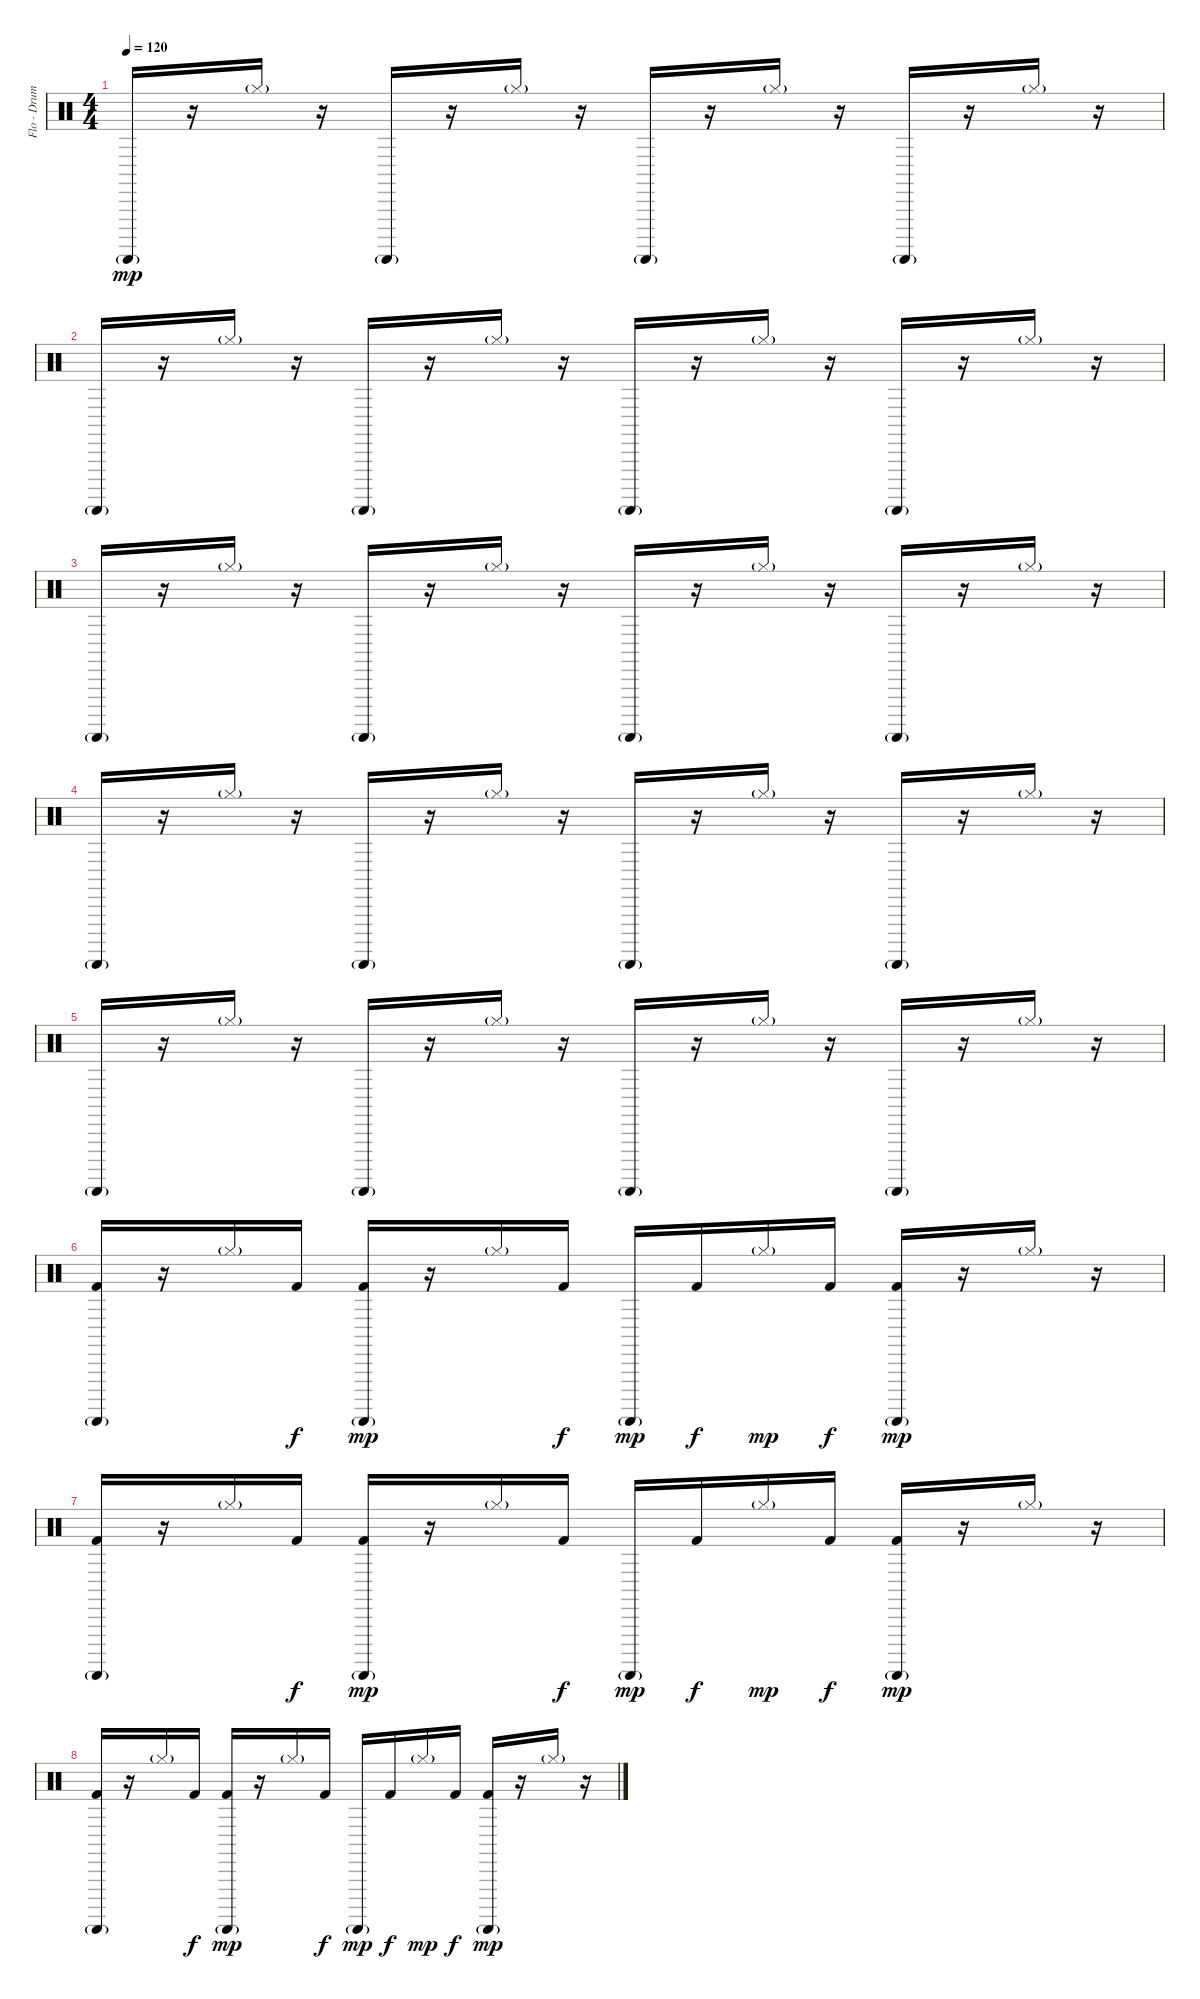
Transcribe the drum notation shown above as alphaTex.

\track ("Flo - Drums" "Flo - Drum") {instrument percussion}
\staff {score}
\articulation defaults
\ts (4 4)
\tempo 120
\clef neutral
\ks c "Guiro (scrap-return)"{g}.16{dy mp}
r.16 "Hi-Hat (closed)"{g}.16 r.16 "Guiro (scrap-return)"{g}.16 r.16 "Hi-Hat (closed)"{g}.16 r.16 "Guiro (scrap-return)"{g}.16 r.16 "Hi-Hat (closed)"{g}.16 r.16 "Guiro (scrap-return)"{g}.16 r.16 "Hi-Hat (closed)"{g}.16 r.16 |
"Guiro (scrap-return)"{g}.16 r.16 "Hi-Hat (closed)"{g}.16 r.16 "Guiro (scrap-return)"{g}.16 r.16 "Hi-Hat (closed)"{g}.16 r.16 "Guiro (scrap-return)"{g}.16 r.16 "Hi-Hat (closed)"{g}.16 r.16 "Guiro (scrap-return)"{g}.16 r.16 "Hi-Hat (closed)"{g}.16 r.16 |
"Guiro (scrap-return)"{g}.16 r.16 "Hi-Hat (closed)"{g}.16 r.16 "Guiro (scrap-return)"{g}.16 r.16 "Hi-Hat (closed)"{g}.16 r.16 "Guiro (scrap-return)"{g}.16 r.16 "Hi-Hat (closed)"{g}.16 r.16 "Guiro (scrap-return)"{g}.16 r.16 "Hi-Hat (closed)"{g}.16 r.16 |
"Guiro (scrap-return)"{g}.16 r.16 "Hi-Hat (closed)"{g}.16 r.16 "Guiro (scrap-return)"{g}.16 r.16 "Hi-Hat (closed)"{g}.16 r.16 "Guiro (scrap-return)"{g}.16 r.16 "Hi-Hat (closed)"{g}.16 r.16 "Guiro (scrap-return)"{g}.16 r.16 "Hi-Hat (closed)"{g}.16 r.16 |
"Guiro (scrap-return)"{g}.16 r.16 "Hi-Hat (closed)"{g}.16 r.16 "Guiro (scrap-return)"{g}.16 r.16 "Hi-Hat (closed)"{g}.16 r.16 "Guiro (scrap-return)"{g}.16 r.16 "Hi-Hat (closed)"{g}.16 r.16 "Guiro (scrap-return)"{g}.16 r.16 "Hi-Hat (closed)"{g}.16 r.16 |
("Guiro (scrap-return)"{g} "Kick (hit) 2").16 r.16 "Hi-Hat (closed)"{g}.16 "Kick (hit) 2".16{dy f} ("Guiro (scrap-return)"{g} "Kick (hit) 2").16{dy mp} r.16 "Hi-Hat (closed)"{g}.16 "Kick (hit) 2".16{dy f} "Guiro (scrap-return)"{g}.16{dy mp} "Kick (hit) 2".16{dy f} "Hi-Hat (closed)"{g}.16{dy mp} "Kick (hit) 2".16{dy f} ("Guiro (scrap-return)"{g} "Kick (hit) 2").16{dy mp} r.16 "Hi-Hat (closed)"{g}.16 r.16 |
("Guiro (scrap-return)"{g} "Kick (hit) 2").16 r.16 "Hi-Hat (closed)"{g}.16 "Kick (hit) 2".16{dy f} ("Guiro (scrap-return)"{g} "Kick (hit) 2").16{dy mp} r.16 "Hi-Hat (closed)"{g}.16 "Kick (hit) 2".16{dy f} "Guiro (scrap-return)"{g}.16{dy mp} "Kick (hit) 2".16{dy f} "Hi-Hat (closed)"{g}.16{dy mp} "Kick (hit) 2".16{dy f} ("Guiro (scrap-return)"{g} "Kick (hit) 2").16{dy mp} r.16 "Hi-Hat (closed)"{g}.16 r.16 |
("Guiro (scrap-return)"{g} "Kick (hit) 2").16 r.16 "Hi-Hat (closed)"{g}.16 "Kick (hit) 2".16{dy f} ("Guiro (scrap-return)"{g} "Kick (hit) 2").16{dy mp} r.16 "Hi-Hat (closed)"{g}.16 "Kick (hit) 2".16{dy f} "Guiro (scrap-return)"{g}.16{dy mp} "Kick (hit) 2".16{dy f} "Hi-Hat (closed)"{g}.16{dy mp} "Kick (hit) 2".16{dy f} ("Guiro (scrap-return)"{g} "Kick (hit) 2").16{dy mp} r.16 "Hi-Hat (closed)"{g}.16 r.16
